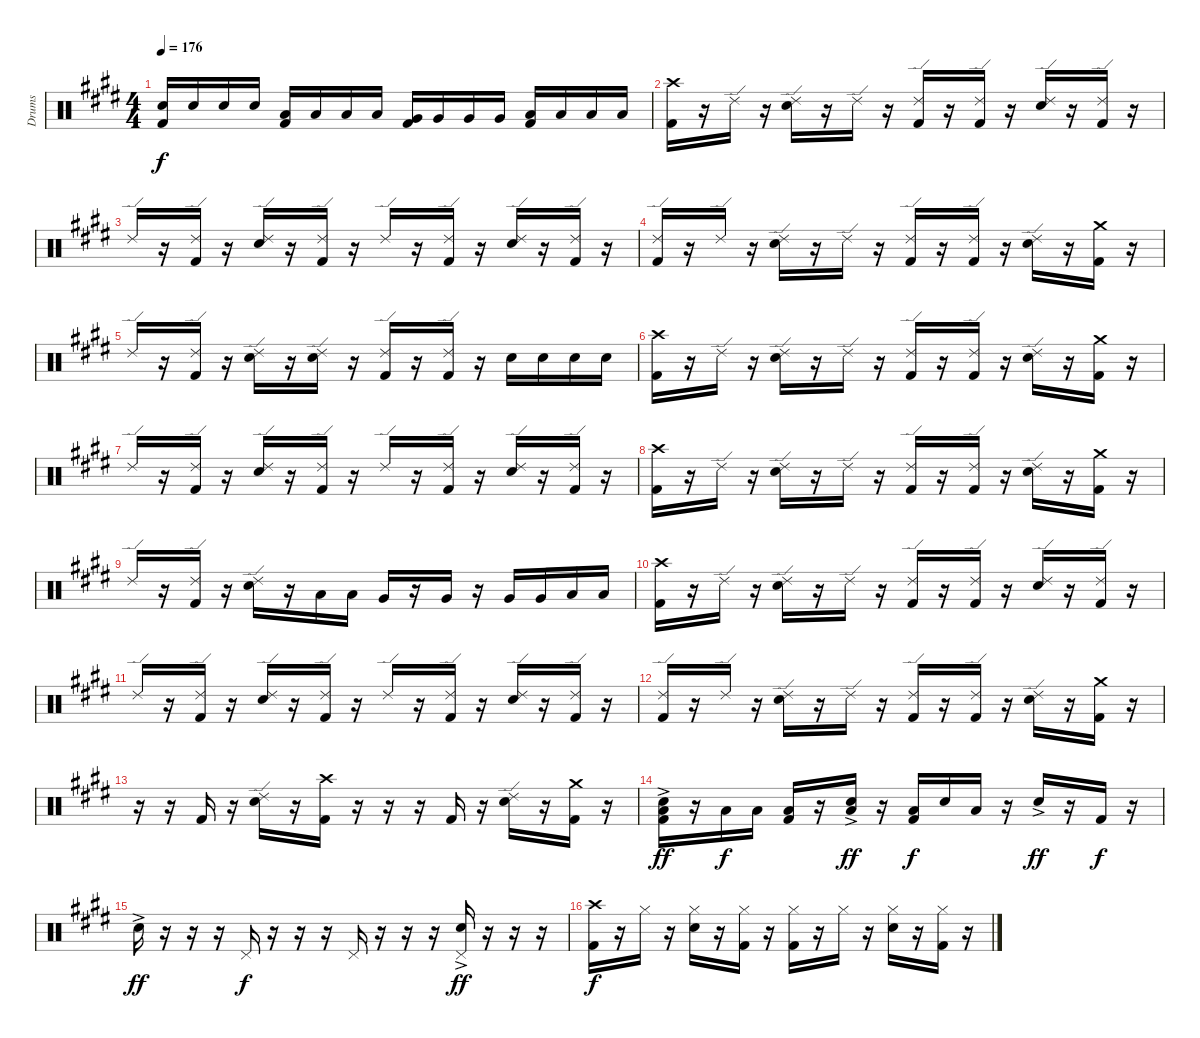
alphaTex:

\track ("Drums" "Drums") {instrument percussion}
\staff {score}
\articulation defaults
\ts (4 4)
\tempo 176
\clef neutral
\ks e
("Electric Snare (hit)" "Kick (hit) 2").16{dy f} "Electric Snare (hit)".16 "Electric Snare (hit)".16 "Electric Snare (hit)".16 ("Low Tom (hit)" "Kick (hit) 2").16 "Low Tom (hit)".16 "Low Tom (hit)".16 "Low Tom (hit)".16 ("Very Low Tom (hit)" "Kick (hit) 2").16 "Very Low Tom (hit)".16 "Very Low Tom (hit)".16 "Very Low Tom (hit)".16 ("Low Floor Tom (hit)" "Kick (hit) 2").16 "Low Floor Tom (hit)".16 "Low Floor Tom (hit)".16 "Low Floor Tom (hit)".16 |
("Crash high (hit)" "Kick (hit) 2").16 r.16 "Ride (edge) 2".16 r.16 ("Ride (edge) 2" "Electric Snare (hit)").16 r.16 "Ride (edge) 2".16 r.16 ("Ride (edge) 2" "Kick (hit) 2").16 r.16 ("Ride (edge) 2" "Kick (hit) 2").16 r.16 ("Ride (edge) 2" "Electric Snare (hit)").16 r.16 ("Ride (edge) 2" "Kick (hit) 2").16 r.16 |
"Ride (edge) 2".16 r.16 ("Ride (edge) 2" "Kick (hit) 2").16 r.16 ("Ride (edge) 2" "Electric Snare (hit)").16 r.16 ("Ride (edge) 2" "Kick (hit) 2").16 r.16 "Ride (edge) 2".16 r.16 ("Ride (edge) 2" "Kick (hit) 2").16 r.16 ("Ride (edge) 2" "Electric Snare (hit)").16 r.16 ("Ride (edge) 2" "Kick (hit) 2").16 r.16 |
("Ride (edge) 2" "Kick (hit) 2").16 r.16 "Ride (edge) 2".16 r.16 ("Ride (edge) 2" "Electric Snare (hit)").16 r.16 "Ride (edge) 2".16 r.16 ("Ride (edge) 2" "Kick (hit) 2").16 r.16 ("Ride (edge) 2" "Kick (hit) 2").16 r.16 ("Ride (edge) 2" "Electric Snare (hit)").16 r.16 ("Crash medium (hit)" "Kick (hit) 2").16 r.16 |
"Ride (edge) 2".16 r.16 ("Ride (edge) 2" "Kick (hit) 2").16 r.16 ("Ride (edge) 2" "Electric Snare (hit)").16 r.16 ("Ride (edge) 2" "Electric Snare (hit)").16 r.16 ("Ride (edge) 2" "Kick (hit) 2").16 r.16 ("Ride (edge) 2" "Kick (hit) 2").16 r.16 "Electric Snare (hit)".16 "Electric Snare (hit)".16 "Electric Snare (hit)".16 "Electric Snare (hit)".16 |
("Crash high (hit)" "Kick (hit) 2").16 r.16 "Ride (edge) 2".16 r.16 ("Ride (edge) 2" "Electric Snare (hit)").16 r.16 "Ride (edge) 2".16 r.16 ("Ride (edge) 2" "Kick (hit) 2").16 r.16 ("Ride (edge) 2" "Kick (hit) 2").16 r.16 ("Ride (edge) 2" "Electric Snare (hit)").16 r.16 ("Crash medium (hit)" "Kick (hit) 2").16 r.16 |
"Ride (edge) 2".16 r.16 ("Ride (edge) 2" "Kick (hit) 2").16 r.16 ("Ride (edge) 2" "Electric Snare (hit)").16 r.16 ("Ride (edge) 2" "Kick (hit) 2").16 r.16 "Ride (edge) 2".16 r.16 ("Ride (edge) 2" "Kick (hit) 2").16 r.16 ("Ride (edge) 2" "Electric Snare (hit)").16 r.16 ("Ride (edge) 2" "Kick (hit) 2").16 r.16 |
("Crash high (hit)" "Kick (hit) 2").16 r.16 "Ride (edge) 2".16 r.16 ("Ride (edge) 2" "Electric Snare (hit)").16 r.16 "Ride (edge) 2".16 r.16 ("Ride (edge) 2" "Kick (hit) 2").16 r.16 ("Ride (edge) 2" "Kick (hit) 2").16 r.16 ("Ride (edge) 2" "Electric Snare (hit)").16 r.16 ("Crash medium (hit)" "Kick (hit) 2").16 r.16 |
"Ride (edge) 2".16 r.16 ("Ride (edge) 2" "Kick (hit) 2").16 r.16 ("Ride (edge) 2" "Electric Snare (hit)").16 r.16 "Low Tom (hit)".16 "Low Tom (hit)".16 "Very Low Tom (hit)".16 r.16 "Very Low Tom (hit)".16 r.16 "Very Low Tom (hit)".16 "Very Low Tom (hit)".16 "Low Floor Tom (hit)".16 "Low Floor Tom (hit)".16 |
("Crash high (hit)" "Kick (hit) 2").16 r.16 "Ride (edge) 2".16 r.16 ("Ride (edge) 2" "Electric Snare (hit)").16 r.16 "Ride (edge) 2".16 r.16 ("Ride (edge) 2" "Kick (hit) 2").16 r.16 ("Ride (edge) 2" "Kick (hit) 2").16 r.16 ("Ride (edge) 2" "Electric Snare (hit)").16 r.16 ("Ride (edge) 2" "Kick (hit) 2").16 r.16 |
"Ride (edge) 2".16 r.16 ("Ride (edge) 2" "Kick (hit) 2").16 r.16 ("Ride (edge) 2" "Electric Snare (hit)").16 r.16 ("Ride (edge) 2" "Kick (hit) 2").16 r.16 "Ride (edge) 2".16 r.16 ("Ride (edge) 2" "Kick (hit) 2").16 r.16 ("Ride (edge) 2" "Electric Snare (hit)").16 r.16 ("Ride (edge) 2" "Kick (hit) 2").16 r.16 |
("Ride (edge) 2" "Kick (hit) 2").16 r.16 "Ride (edge) 2".16 r.16 ("Ride (edge) 2" "Electric Snare (hit)").16 r.16 "Ride (edge) 2".16 r.16 ("Ride (edge) 2" "Kick (hit) 2").16 r.16 ("Ride (edge) 2" "Kick (hit) 2").16 r.16 ("Ride (edge) 2" "Electric Snare (hit)").16 r.16 ("Crash medium (hit)" "Kick (hit) 2").16 r.16 |
r.16 r.16 "Kick (hit) 2".16 r.16 ("Ride (edge) 2" "Electric Snare (hit)").16 r.16 ("Crash high (hit)" "Kick (hit) 2").16 r.16 r.16 r.16 "Kick (hit) 2".16 r.16 ("Ride (edge) 2" "Electric Snare (hit)").16 r.16 ("Crash medium (hit)" "Kick (hit) 2").16 r.16 |
("Low Floor Tom (hit)"{ac} "Electric Snare (hit)"{ac} "Kick (hit) 2").16{dy ff} r.16 "Low Floor Tom (hit)".16{dy f} "Low Floor Tom (hit)".16 ("Low Floor Tom (hit)" "Kick (hit) 2").16 r.16 ("Low Floor Tom (hit)"{ac} "Electric Snare (hit)"{ac}).16{dy ff} r.16 ("Low Floor Tom (hit)" "Kick (hit) 2").16{dy f} "Electric Snare (hit)".16 "Low Floor Tom (hit)".16 r.16 "Electric Snare (hit)"{ac}.16{dy ff} r.16 "Kick (hit) 2".16{dy f} r.16 |
"Electric Snare (hit)"{ac}.16{dy ff} r.16 r.16 r.16 "Pedal Hi-Hat (hit)".16{dy f} r.16 r.16 r.16 "Pedal Hi-Hat (hit)".16 r.16 r.16 r.16 ("Pedal Hi-Hat (hit)" "Electric Snare (hit)"{ac}).16{dy ff} r.16 r.16 r.16 |
("Crash high (hit)" "Kick (hit) 2").16{dy f} r.16 "Hi-Hat (closed)".16 r.16 ("Hi-Hat (closed)" "Electric Snare (hit)").16 r.16 ("Hi-Hat (closed)" "Kick (hit) 2").16 r.16 ("Hi-Hat (closed)" "Kick (hit) 2").16 r.16 "Hi-Hat (closed)".16 r.16 ("Hi-Hat (closed)" "Electric Snare (hit)").16 r.16 ("Hi-Hat (closed)" "Kick (hit) 2").16 r.16
